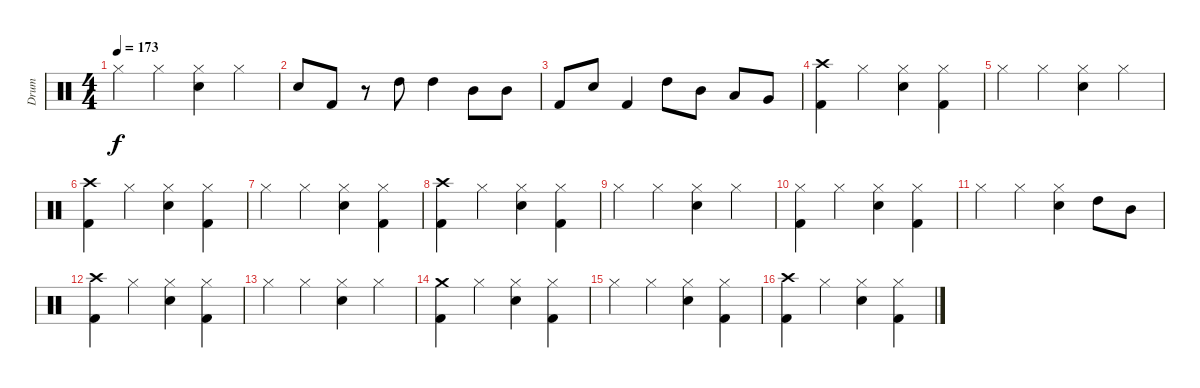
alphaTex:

\track ("Drum" "Drum") {instrument percussion}
\staff {score}
\articulation defaults
\ts (4 4)
\tempo 173
\clef neutral
\ks c "Hi-Hat (closed)".4{dy f} "Hi-Hat (closed)".4
("Hi-Hat (closed)" "Electric Snare (hit)").4 "Hi-Hat (closed)".4 |
"Electric Snare (hit)".8 "Kick (hit) 2".8 r.8 "High Tom (hit)".8 "High Tom (hit)".4 "Mid Tom (hit)".8 "Mid Tom (hit)".8 |
"Kick (hit) 2".8 "Electric Snare (hit)".8 "Kick (hit) 2".4 "High Tom (hit)".8 "Mid Tom (hit)".8 "Low Tom (hit)".8 "Very Low Tom (hit)".8 |
("Crash high (hit)" "Kick (hit) 2").4 "Hi-Hat (closed)".4 ("Hi-Hat (closed)" "Electric Snare (hit)").4 ("Hi-Hat (closed)" "Kick (hit) 2").4 |
"Hi-Hat (closed)".4 "Hi-Hat (closed)".4 ("Hi-Hat (closed)" "Electric Snare (hit)").4 "Hi-Hat (closed)".4 |
("Crash high (hit)" "Kick (hit) 2").4 "Hi-Hat (closed)".4 ("Hi-Hat (closed)" "Electric Snare (hit)").4 ("Hi-Hat (closed)" "Kick (hit) 2").4 |
"Hi-Hat (closed)".4 "Hi-Hat (closed)".4 ("Hi-Hat (closed)" "Electric Snare (hit)").4 ("Hi-Hat (closed)" "Kick (hit) 2").4 |
("Crash high (hit)" "Kick (hit) 2").4 "Hi-Hat (closed)".4 ("Hi-Hat (closed)" "Electric Snare (hit)").4 ("Hi-Hat (closed)" "Kick (hit) 2").4 |
"Hi-Hat (closed)".4 "Hi-Hat (closed)".4 ("Hi-Hat (closed)" "Electric Snare (hit)").4 "Hi-Hat (closed)".4 |
("Hi-Hat (closed)" "Kick (hit) 2").4 "Hi-Hat (closed)".4 ("Hi-Hat (closed)" "Electric Snare (hit)").4 ("Hi-Hat (closed)" "Kick (hit) 2").4 |
"Hi-Hat (closed)".4 "Hi-Hat (closed)".4 ("Hi-Hat (closed)" "Electric Snare (hit)").4 "High Tom (hit)".8 "Mid Tom (hit)".8 |
("Crash high (hit)" "Kick (hit) 2").4 "Hi-Hat (closed)".4 ("Hi-Hat (closed)" "Electric Snare (hit)").4 ("Hi-Hat (closed)" "Kick (hit) 2").4 |
"Hi-Hat (closed)".4 "Hi-Hat (closed)".4 ("Hi-Hat (closed)" "Electric Snare (hit)").4 "Hi-Hat (closed)".4 |
("Crash medium (hit)" "Kick (hit) 2").4 "Hi-Hat (closed)".4 ("Hi-Hat (closed)" "Electric Snare (hit)").4 ("Hi-Hat (closed)" "Kick (hit) 2").4 |
"Hi-Hat (closed)".4 "Hi-Hat (closed)".4 ("Hi-Hat (closed)" "Electric Snare (hit)").4 ("Hi-Hat (closed)" "Kick (hit) 2").4 |
("Crash high (hit)" "Kick (hit) 2").4 "Hi-Hat (closed)".4 ("Hi-Hat (closed)" "Electric Snare (hit)").4 ("Hi-Hat (closed)" "Kick (hit) 2").4
